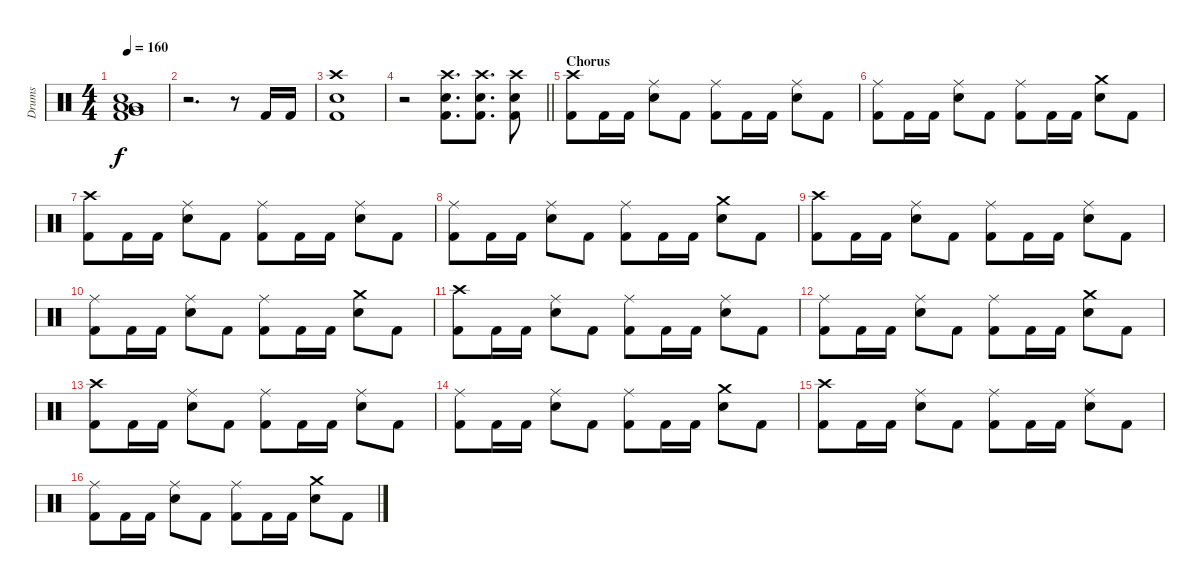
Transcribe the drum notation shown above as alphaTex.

\track ("Drums" "Drums") {instrument percussion}
\staff {score}
\articulation defaults
\ts (4 4)
\tempo 160
\clef neutral
\ks c
("Snare (hit) 2" "Low Floor Tom (hit)" "Very Low Tom (hit)" "Low Tom (hit)" "Kick (hit) 2").1{dy f} |
r.2{d} r.8 "Kick (hit) 2".16 "Kick (hit) 2".16 |
("Crash high (hit)" "Snare (hit) 2" "Kick (hit) 2").1 |
\barLineRight lightlight
r.2 ("Crash high (hit)" "Snare (hit) 2" "Kick (hit) 2").8{d} ("Crash high (hit)" "Snare (hit) 2" "Kick (hit) 2").8{d} ("Crash high (hit)" "Snare (hit) 2" "Kick (hit) 2").8 |
\section ("" "Chorus")
("Crash high (hit)" "Kick (hit) 2").8 "Kick (hit) 2".16 "Kick (hit) 2".16 ("Ride (middle)" "Snare (hit) 2").8 "Kick (hit) 2".8 ("Ride (middle)" "Kick (hit) 2").8 "Kick (hit) 2".16 "Kick (hit) 2".16 ("Ride (middle)" "Snare (hit) 2").8 "Kick (hit) 2".8 |
("Ride (middle)" "Kick (hit) 2").8 "Kick (hit) 2".16 "Kick (hit) 2".16 ("Ride (middle)" "Snare (hit) 2").8 "Kick (hit) 2".8 ("Ride (middle)" "Kick (hit) 2").8 "Kick (hit) 2".16 "Kick (hit) 2".16 ("Crash medium (hit)" "Snare (hit) 2").8 "Kick (hit) 2".8 |
("Crash high (hit)" "Kick (hit) 2").8 "Kick (hit) 2".16 "Kick (hit) 2".16 ("Ride (middle)" "Snare (hit) 2").8 "Kick (hit) 2".8 ("Ride (middle)" "Kick (hit) 2").8 "Kick (hit) 2".16 "Kick (hit) 2".16 ("Ride (middle)" "Snare (hit) 2").8 "Kick (hit) 2".8 |
("Ride (middle)" "Kick (hit) 2").8 "Kick (hit) 2".16 "Kick (hit) 2".16 ("Ride (middle)" "Snare (hit) 2").8 "Kick (hit) 2".8 ("Ride (middle)" "Kick (hit) 2").8 "Kick (hit) 2".16 "Kick (hit) 2".16 ("Crash medium (hit)" "Snare (hit) 2").8 "Kick (hit) 2".8 |
("Crash high (hit)" "Kick (hit) 2").8 "Kick (hit) 2".16 "Kick (hit) 2".16 ("Ride (middle)" "Snare (hit) 2").8 "Kick (hit) 2".8 ("Ride (middle)" "Kick (hit) 2").8 "Kick (hit) 2".16 "Kick (hit) 2".16 ("Ride (middle)" "Snare (hit) 2").8 "Kick (hit) 2".8 |
("Ride (middle)" "Kick (hit) 2").8 "Kick (hit) 2".16 "Kick (hit) 2".16 ("Ride (middle)" "Snare (hit) 2").8 "Kick (hit) 2".8 ("Ride (middle)" "Kick (hit) 2").8 "Kick (hit) 2".16 "Kick (hit) 2".16 ("Crash medium (hit)" "Snare (hit) 2").8 "Kick (hit) 2".8 |
("Crash high (hit)" "Kick (hit) 2").8 "Kick (hit) 2".16 "Kick (hit) 2".16 ("Ride (middle)" "Snare (hit) 2").8 "Kick (hit) 2".8 ("Ride (middle)" "Kick (hit) 2").8 "Kick (hit) 2".16 "Kick (hit) 2".16 ("Ride (middle)" "Snare (hit) 2").8 "Kick (hit) 2".8 |
("Ride (middle)" "Kick (hit) 2").8 "Kick (hit) 2".16 "Kick (hit) 2".16 ("Ride (middle)" "Snare (hit) 2").8 "Kick (hit) 2".8 ("Ride (middle)" "Kick (hit) 2").8 "Kick (hit) 2".16 "Kick (hit) 2".16 ("Crash medium (hit)" "Snare (hit) 2").8 "Kick (hit) 2".8 |
("Crash high (hit)" "Kick (hit) 2").8 "Kick (hit) 2".16 "Kick (hit) 2".16 ("Ride (middle)" "Snare (hit) 2").8 "Kick (hit) 2".8 ("Ride (middle)" "Kick (hit) 2").8 "Kick (hit) 2".16 "Kick (hit) 2".16 ("Ride (middle)" "Snare (hit) 2").8 "Kick (hit) 2".8 |
("Ride (middle)" "Kick (hit) 2").8 "Kick (hit) 2".16 "Kick (hit) 2".16 ("Ride (middle)" "Snare (hit) 2").8 "Kick (hit) 2".8 ("Ride (middle)" "Kick (hit) 2").8 "Kick (hit) 2".16 "Kick (hit) 2".16 ("Crash medium (hit)" "Snare (hit) 2").8 "Kick (hit) 2".8 |
("Crash high (hit)" "Kick (hit) 2").8 "Kick (hit) 2".16 "Kick (hit) 2".16 ("Ride (middle)" "Snare (hit) 2").8 "Kick (hit) 2".8 ("Ride (middle)" "Kick (hit) 2").8 "Kick (hit) 2".16 "Kick (hit) 2".16 ("Ride (middle)" "Snare (hit) 2").8 "Kick (hit) 2".8 |
("Ride (middle)" "Kick (hit) 2").8 "Kick (hit) 2".16 "Kick (hit) 2".16 ("Ride (middle)" "Snare (hit) 2").8 "Kick (hit) 2".8 ("Ride (middle)" "Kick (hit) 2").8 "Kick (hit) 2".16 "Kick (hit) 2".16 ("Crash medium (hit)" "Snare (hit) 2").8 "Kick (hit) 2".8
